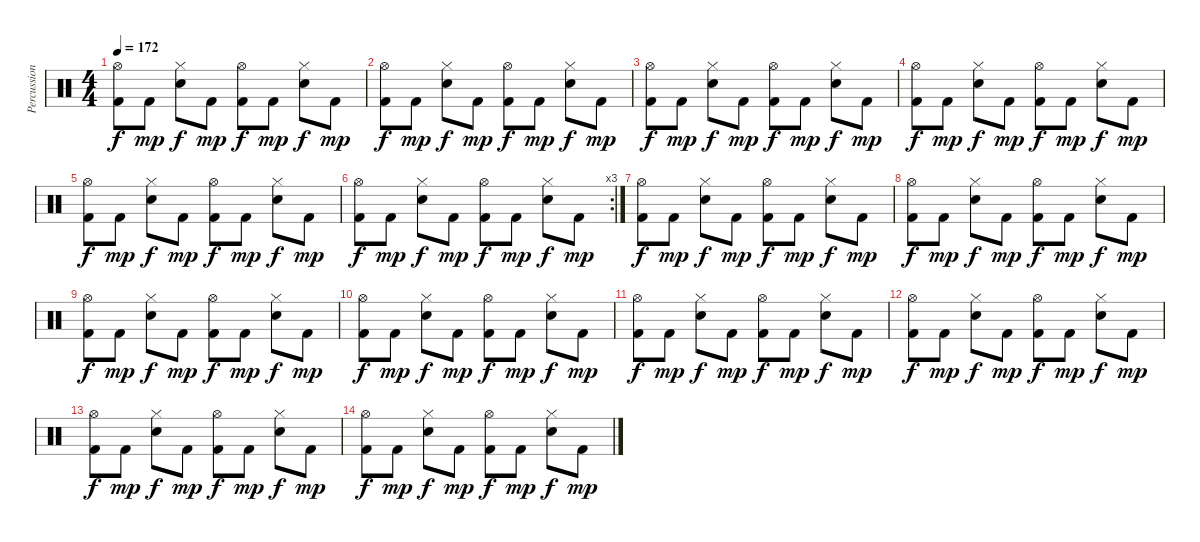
\track ("Percussions" "Percussion") {instrument percussion}
\staff {score}
\articulation defaults
\ts (4 4)
\tempo 172
\clef neutral
\ks c
("Hi-Hat (open)" "Kick (hit) 2").8{dy f} "Kick (hit) 2".8{dy mp} ("Hi-Hat (closed)" "Snare (hit) 2").8{dy f} "Kick (hit) 2".8{dy mp} ("Hi-Hat (open)" "Kick (hit) 2").8{dy f} "Kick (hit) 2".8{dy mp} ("Hi-Hat (closed)" "Snare (hit) 2").8{dy f} "Kick (hit) 2".8{dy mp} |
("Hi-Hat (open)" "Kick (hit) 2").8{dy f} "Kick (hit) 2".8{dy mp} ("Hi-Hat (closed)" "Snare (hit) 2").8{dy f} "Kick (hit) 2".8{dy mp} ("Hi-Hat (open)" "Kick (hit) 2").8{dy f} "Kick (hit) 2".8{dy mp} ("Hi-Hat (closed)" "Snare (hit) 2").8{dy f} "Kick (hit) 2".8{dy mp} |
("Hi-Hat (open)" "Kick (hit) 2").8{dy f} "Kick (hit) 2".8{dy mp} ("Hi-Hat (closed)" "Snare (hit) 2").8{dy f} "Kick (hit) 2".8{dy mp} ("Hi-Hat (open)" "Kick (hit) 2").8{dy f} "Kick (hit) 2".8{dy mp} ("Hi-Hat (closed)" "Snare (hit) 2").8{dy f} "Kick (hit) 2".8{dy mp} |
("Hi-Hat (open)" "Kick (hit) 2").8{dy f} "Kick (hit) 2".8{dy mp} ("Hi-Hat (closed)" "Snare (hit) 2").8{dy f} "Kick (hit) 2".8{dy mp} ("Hi-Hat (open)" "Kick (hit) 2").8{dy f} "Kick (hit) 2".8{dy mp} ("Hi-Hat (closed)" "Snare (hit) 2").8{dy f} "Kick (hit) 2".8{dy mp} |
("Hi-Hat (open)" "Kick (hit) 2").8{dy f} "Kick (hit) 2".8{dy mp} ("Hi-Hat (closed)" "Snare (hit) 2").8{dy f} "Kick (hit) 2".8{dy mp} ("Hi-Hat (open)" "Kick (hit) 2").8{dy f} "Kick (hit) 2".8{dy mp} ("Hi-Hat (closed)" "Snare (hit) 2").8{dy f} "Kick (hit) 2".8{dy mp} |
\rc 3
("Hi-Hat (open)" "Kick (hit) 2").8{dy f} "Kick (hit) 2".8{dy mp} ("Hi-Hat (closed)" "Snare (hit) 2").8{dy f} "Kick (hit) 2".8{dy mp} ("Hi-Hat (open)" "Kick (hit) 2").8{dy f} "Kick (hit) 2".8{dy mp} ("Hi-Hat (closed)" "Snare (hit) 2").8{dy f} "Kick (hit) 2".8{dy mp} |
("Hi-Hat (open)" "Kick (hit) 2").8{dy f volume 6} "Kick (hit) 2".8{dy mp} ("Hi-Hat (closed)" "Snare (hit) 2").8{dy f} "Kick (hit) 2".8{dy mp} ("Hi-Hat (open)" "Kick (hit) 2").8{dy f} "Kick (hit) 2".8{dy mp} ("Hi-Hat (closed)" "Snare (hit) 2").8{dy f} "Kick (hit) 2".8{dy mp} |
("Hi-Hat (open)" "Kick (hit) 2").8{dy f} "Kick (hit) 2".8{dy mp} ("Hi-Hat (closed)" "Snare (hit) 2").8{dy f} "Kick (hit) 2".8{dy mp} ("Hi-Hat (open)" "Kick (hit) 2").8{dy f} "Kick (hit) 2".8{dy mp} ("Hi-Hat (closed)" "Snare (hit) 2").8{dy f} "Kick (hit) 2".8{dy mp} |
("Hi-Hat (open)" "Kick (hit) 2").8{dy f} "Kick (hit) 2".8{dy mp} ("Hi-Hat (closed)" "Snare (hit) 2").8{dy f} "Kick (hit) 2".8{dy mp} ("Hi-Hat (open)" "Kick (hit) 2").8{dy f} "Kick (hit) 2".8{dy mp} ("Hi-Hat (closed)" "Snare (hit) 2").8{dy f} "Kick (hit) 2".8{dy mp} |
("Hi-Hat (open)" "Kick (hit) 2").8{dy f} "Kick (hit) 2".8{dy mp} ("Hi-Hat (closed)" "Snare (hit) 2").8{dy f} "Kick (hit) 2".8{dy mp} ("Hi-Hat (open)" "Kick (hit) 2").8{dy f} "Kick (hit) 2".8{dy mp} ("Hi-Hat (closed)" "Snare (hit) 2").8{dy f} "Kick (hit) 2".8{dy mp} |
("Hi-Hat (open)" "Kick (hit) 2").8{dy f volume 0} "Kick (hit) 2".8{dy mp} ("Hi-Hat (closed)" "Snare (hit) 2").8{dy f} "Kick (hit) 2".8{dy mp} ("Hi-Hat (open)" "Kick (hit) 2").8{dy f} "Kick (hit) 2".8{dy mp} ("Hi-Hat (closed)" "Snare (hit) 2").8{dy f} "Kick (hit) 2".8{dy mp} |
("Hi-Hat (open)" "Kick (hit) 2").8{dy f} "Kick (hit) 2".8{dy mp} ("Hi-Hat (closed)" "Snare (hit) 2").8{dy f} "Kick (hit) 2".8{dy mp} ("Hi-Hat (open)" "Kick (hit) 2").8{dy f} "Kick (hit) 2".8{dy mp} ("Hi-Hat (closed)" "Snare (hit) 2").8{dy f} "Kick (hit) 2".8{dy mp} |
("Hi-Hat (open)" "Kick (hit) 2").8{dy f} "Kick (hit) 2".8{dy mp} ("Hi-Hat (closed)" "Snare (hit) 2").8{dy f} "Kick (hit) 2".8{dy mp} ("Hi-Hat (open)" "Kick (hit) 2").8{dy f} "Kick (hit) 2".8{dy mp} ("Hi-Hat (closed)" "Snare (hit) 2").8{dy f} "Kick (hit) 2".8{dy mp} |
("Hi-Hat (open)" "Kick (hit) 2").8{dy f} "Kick (hit) 2".8{dy mp} ("Hi-Hat (closed)" "Snare (hit) 2").8{dy f} "Kick (hit) 2".8{dy mp} ("Hi-Hat (open)" "Kick (hit) 2").8{dy f} "Kick (hit) 2".8{dy mp} ("Hi-Hat (closed)" "Snare (hit) 2").8{dy f} "Kick (hit) 2".8{dy mp}
